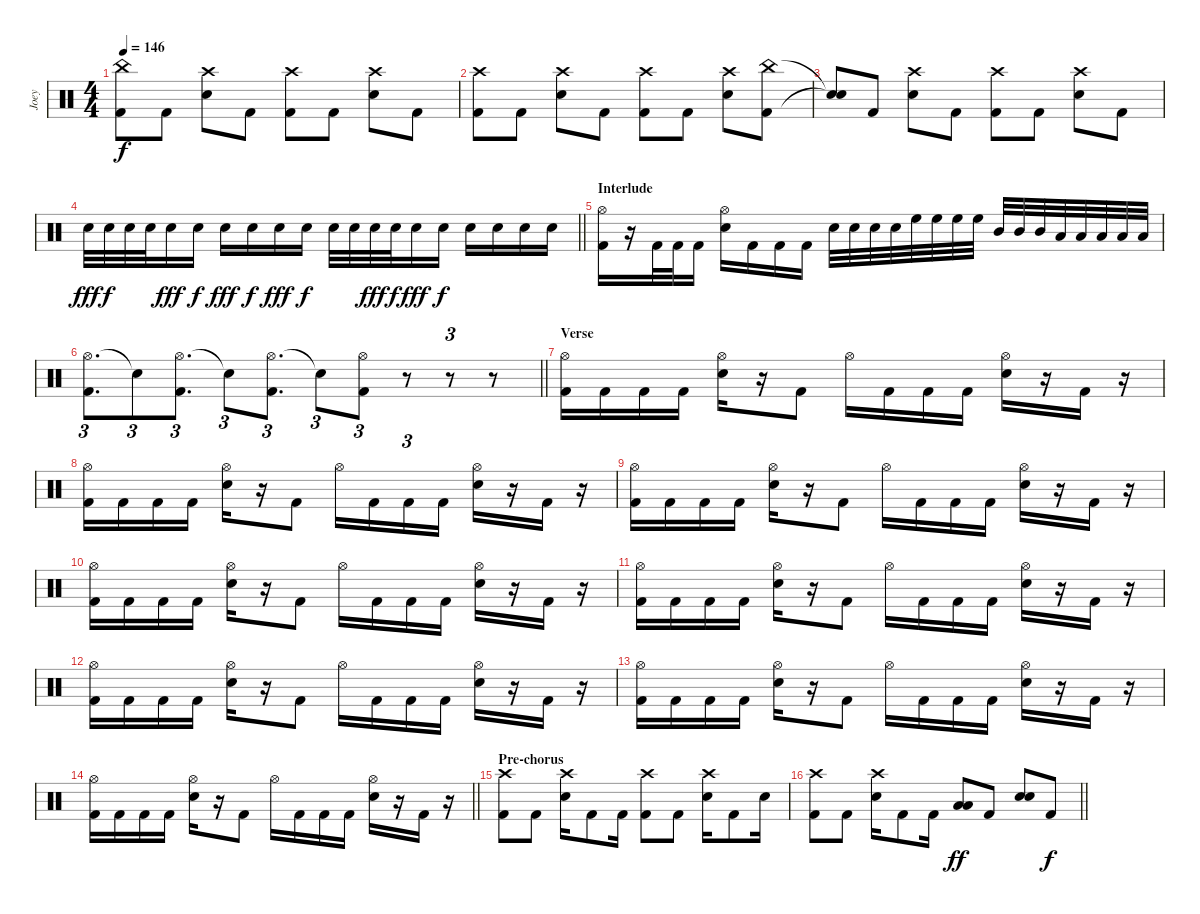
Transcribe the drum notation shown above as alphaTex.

\track ("Joey" "Joey") {instrument percussion}
\staff {score}
\articulation defaults
\ts (4 4)
\tempo 146
\clef neutral
\ks c
("China (hit)" "Kick (hit) 2").8{dy f} "Kick (hit) 2".8 ("Crash high (hit)" "Snare (hit) 2").8 "Kick (hit) 2".8 ("Crash high (hit)" "Kick (hit) 2").8 "Kick (hit) 2".8 ("Crash high (hit)" "Snare (hit) 2").8 "Kick (hit) 2".8 |
("Crash high (hit)" "Kick (hit) 2").8 "Kick (hit) 2".8 ("Crash high (hit)" "Snare (hit) 2").8 "Kick (hit) 2".8 ("Crash high (hit)" "Kick (hit) 2").8 "Kick (hit) 2".8 ("Crash high (hit)" "Snare (hit) 2").8 ("China (hit)" "Kick (hit) 2").8 |
("Snare (hit)"{t} "Snare (hit)"{t}).8 "Kick (hit) 2".8 ("Crash high (hit)" "Snare (hit) 2").8 "Kick (hit) 2".8 ("Crash high (hit)" "Kick (hit) 2").8 "Kick (hit) 2".8 ("Crash high (hit)" "Snare (hit) 2").8 "Kick (hit) 2".8 |
\barLineRight lightlight "Electric Snare (hit)".32{dy fff} "Electric Snare (hit)".32{dy f} "Electric Snare (hit)".32 "Electric Snare (hit)".32 "Electric Snare (hit)".16{dy fff} "Electric Snare (hit)".16{dy f} "Electric Snare (hit)".16{dy fff} "Electric Snare (hit)".16{dy f} "Electric Snare (hit)".16{dy fff} "Electric Snare (hit)".16{dy f} "Electric Snare (hit)".32 "Electric Snare (hit)".32 "Electric Snare (hit)".32{dy fff} "Electric Snare (hit)".32{dy f} "Electric Snare (hit)".16{dy fff} "Electric Snare (hit)".16{dy f} "Electric Snare (hit)".16 "Electric Snare (hit)".16 "Electric Snare (hit)".16 "Electric Snare (hit)".16
|
\section ("" "Interlude")
("Hi-Hat (open)" "Kick (hit) 2").16 r.16 "Kick (hit) 2".32 "Kick (hit) 2".32 "Kick (hit) 2".16 ("Hi-Hat (open)" "Snare (hit) 2").16 "Kick (hit) 2".16 "Kick (hit) 2".16 "Kick (hit) 2".16 "Snare (hit) 2".32 "Snare (hit) 2".32 "Snare (hit) 2".32 "Snare (hit) 2".32 "High Floor Tom (hit)".32 "High Floor Tom (hit)".32 "High Floor Tom (hit)".32 "High Floor Tom (hit)".32 "Mid Tom (hit)".32 "Mid Tom (hit)".32 "Mid Tom (hit)".32 "Low Tom (hit)".32 "Low Tom (hit)".32 "Low Floor Tom (hit)".32 "Low Floor Tom (hit)".32 "Low Floor Tom (hit)".32 |
\barLineRight lightlight
("Hi-Hat (open)" "Kick (hit) 2").8{d tu (3 2)} "Snare (hit)"{t}.8{tu (3 2)} ("Hi-Hat (open)" "Kick (hit) 2").8{d tu (3 2)} "Snare (hit)"{t}.8{tu (3 2)} ("Hi-Hat (open)" "Kick (hit) 2").8{d tu (3 2)} "Snare (hit)"{t}.8{tu (3 2)} ("Hi-Hat (open)" "Kick (hit) 2").8{tu (3 2)} r.8{tu (3 2)} r.8{tu (3 2)} r.8 |
\section ("" "Verse")
("Hi-Hat (open)" "Kick (hit) 2").16 "Kick (hit) 2".16 "Kick (hit) 2".16 "Kick (hit) 2".16 ("Hi-Hat (open)" "Snare (hit) 2").16 r.16 "Kick (hit) 2".8 "Hi-Hat (open)".16 "Kick (hit) 2".16 "Kick (hit) 2".16 "Kick (hit) 2".16 ("Hi-Hat (open)" "Snare (hit) 2").16 r.16 "Kick (hit) 2".16 r.16 |
("Hi-Hat (open)" "Kick (hit) 2").16 "Kick (hit) 2".16 "Kick (hit) 2".16 "Kick (hit) 2".16 ("Hi-Hat (open)" "Snare (hit) 2").16 r.16 "Kick (hit) 2".8 "Hi-Hat (open)".16 "Kick (hit) 2".16 "Kick (hit) 2".16 "Kick (hit) 2".16 ("Hi-Hat (open)" "Snare (hit) 2").16 r.16 "Kick (hit) 2".16 r.16 |
("Hi-Hat (open)" "Kick (hit) 2").16 "Kick (hit) 2".16 "Kick (hit) 2".16 "Kick (hit) 2".16 ("Hi-Hat (open)" "Snare (hit) 2").16 r.16 "Kick (hit) 2".8 "Hi-Hat (open)".16 "Kick (hit) 2".16 "Kick (hit) 2".16 "Kick (hit) 2".16 ("Hi-Hat (open)" "Snare (hit) 2").16 r.16 "Kick (hit) 2".16 r.16 |
("Hi-Hat (open)" "Kick (hit) 2").16 "Kick (hit) 2".16 "Kick (hit) 2".16 "Kick (hit) 2".16 ("Hi-Hat (open)" "Snare (hit) 2").16 r.16 "Kick (hit) 2".8 "Hi-Hat (open)".16 "Kick (hit) 2".16 "Kick (hit) 2".16 "Kick (hit) 2".16 ("Hi-Hat (open)" "Snare (hit) 2").16 r.16 "Kick (hit) 2".16 r.16 |
("Hi-Hat (open)" "Kick (hit) 2").16 "Kick (hit) 2".16 "Kick (hit) 2".16 "Kick (hit) 2".16 ("Hi-Hat (open)" "Snare (hit) 2").16 r.16 "Kick (hit) 2".8 "Hi-Hat (open)".16 "Kick (hit) 2".16 "Kick (hit) 2".16 "Kick (hit) 2".16 ("Hi-Hat (open)" "Snare (hit) 2").16 r.16 "Kick (hit) 2".16 r.16 |
("Hi-Hat (open)" "Kick (hit) 2").16 "Kick (hit) 2".16 "Kick (hit) 2".16 "Kick (hit) 2".16 ("Hi-Hat (open)" "Snare (hit) 2").16 r.16 "Kick (hit) 2".8 "Hi-Hat (open)".16 "Kick (hit) 2".16 "Kick (hit) 2".16 "Kick (hit) 2".16 ("Hi-Hat (open)" "Snare (hit) 2").16 r.16 "Kick (hit) 2".16 r.16 |
("Hi-Hat (open)" "Kick (hit) 2").16 "Kick (hit) 2".16 "Kick (hit) 2".16 "Kick (hit) 2".16 ("Hi-Hat (open)" "Snare (hit) 2").16 r.16 "Kick (hit) 2".8 "Hi-Hat (open)".16 "Kick (hit) 2".16 "Kick (hit) 2".16 "Kick (hit) 2".16 ("Hi-Hat (open)" "Snare (hit) 2").16 r.16 "Kick (hit) 2".16 r.16 |
\barLineRight lightlight
("Hi-Hat (open)" "Kick (hit) 2").16 "Kick (hit) 2".16 "Kick (hit) 2".16 "Kick (hit) 2".16 ("Hi-Hat (open)" "Snare (hit) 2").16 r.16 "Kick (hit) 2".8 "Hi-Hat (open)".16 "Kick (hit) 2".16 "Kick (hit) 2".16 "Kick (hit) 2".16 ("Hi-Hat (open)" "Snare (hit) 2").16 r.16 "Kick (hit) 2".16 r.16 |
\section ("" "Pre-chorus")
("Crash high (hit)" "Kick (hit) 2").8 "Kick (hit) 2".8 ("Crash high (hit)" "Snare (hit) 2").16 "Kick (hit) 2".8 "Kick (hit) 2".16 ("Crash high (hit)" "Kick (hit) 2").8 "Kick (hit) 2".8 ("Crash high (hit)" "Snare (hit) 2").16 "Kick (hit) 2".8 "Snare (hit) 2".16 |
\barLineRight lightlight
("Crash high (hit)" "Kick (hit) 2").8 "Kick (hit) 2".8 ("Crash high (hit)" "Snare (hit) 2").16 "Kick (hit) 2".8 "Kick (hit) 2".16 ("Low Floor Tom (hit)" "Low Tom (hit)").8{dy ff} "Kick (hit) 2".8 ("Snare (hit) 2" "Snare (hit) 2").8{bd 240} "Kick (hit) 2".8{dy f}
